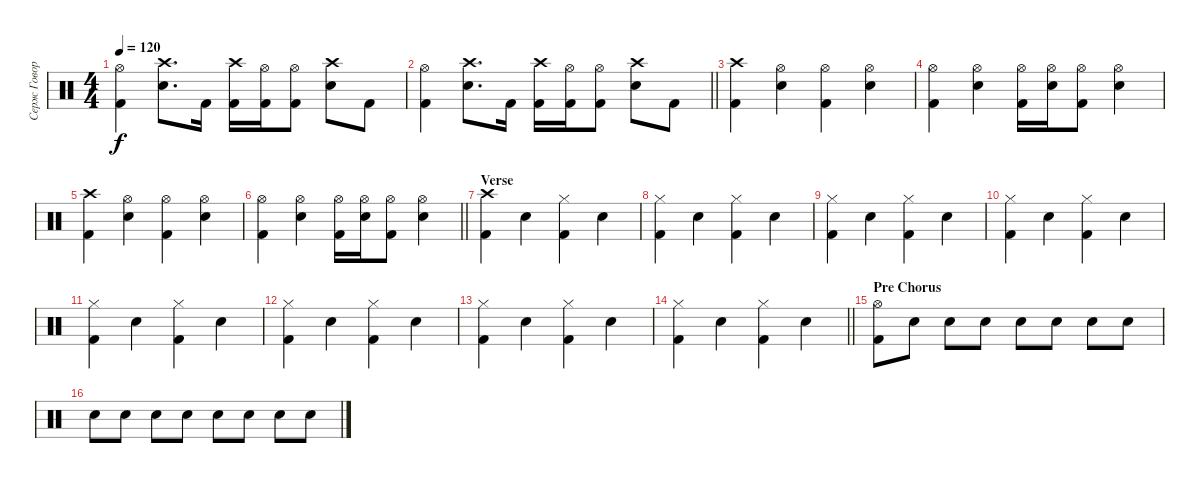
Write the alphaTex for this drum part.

\track ("Серж Говорун" "Серж Говор") {instrument percussion}
\staff {score}
\articulation defaults
\ts (4 4)
\tempo 120
\clef neutral
\ks c
("Hi-Hat (open)" "Kick (hit) 2").4{dy f} ("Crash high (hit)" "Electric Snare (hit)").8{d} "Kick (hit) 2".16 ("Kick (hit) 2" "Crash high (hit)").16 ("Kick (hit) 2" "Hi-Hat (open)").16 ("Kick (hit) 2" "Hi-Hat (open)").8 ("Electric Snare (hit)" "Crash high (hit)").8 "Kick (hit) 2".8 |
\barLineRight lightlight
("Hi-Hat (open)" "Kick (hit) 2").4 ("Crash high (hit)" "Electric Snare (hit)").8{d} "Kick (hit) 2".16 ("Kick (hit) 2" "Crash high (hit)").16 ("Kick (hit) 2" "Hi-Hat (open)").16 ("Kick (hit) 2" "Hi-Hat (open)").8 ("Electric Snare (hit)" "Crash high (hit)").8 "Kick (hit) 2".8 |
("Crash high (hit)" "Kick (hit) 2").4 ("Hi-Hat (open)" "Electric Snare (hit)").4 ("Hi-Hat (open)" "Kick (hit) 2").4 ("Hi-Hat (open)" "Electric Snare (hit)").4 |
("Hi-Hat (open)" "Kick (hit) 2").4 ("Hi-Hat (open)" "Electric Snare (hit)").4 ("Kick (hit) 2" "Hi-Hat (open)").16 ("Hi-Hat (open)" "Electric Snare (hit)").16 ("Kick (hit) 2" "Hi-Hat (open)").8 ("Electric Snare (hit)" "Hi-Hat (open)").4 |
("Crash high (hit)" "Kick (hit) 2").4 ("Hi-Hat (open)" "Electric Snare (hit)").4 ("Hi-Hat (open)" "Kick (hit) 2").4 ("Hi-Hat (open)" "Electric Snare (hit)").4 |
\barLineRight lightlight
("Hi-Hat (open)" "Kick (hit) 2").4 ("Hi-Hat (open)" "Electric Snare (hit)").4 ("Kick (hit) 2" "Hi-Hat (open)").16 ("Hi-Hat (open)" "Electric Snare (hit)").16 ("Kick (hit) 2" "Hi-Hat (open)").8 ("Electric Snare (hit)" "Hi-Hat (open)").4 |
\section ("" "Verse")
("Crash high (hit)" "Kick (hit) 2").4 "Electric Snare (hit)".4 ("Hi-Hat (closed)" "Kick (hit) 2").4 "Electric Snare (hit)".4 |
("Hi-Hat (closed)" "Kick (hit) 2").4 "Electric Snare (hit)".4 ("Hi-Hat (closed)" "Kick (hit) 2").4 "Electric Snare (hit)".4 |
("Hi-Hat (closed)" "Kick (hit) 2").4 "Electric Snare (hit)".4 ("Hi-Hat (closed)" "Kick (hit) 2").4 "Electric Snare (hit)".4 |
("Hi-Hat (closed)" "Kick (hit) 2").4 "Electric Snare (hit)".4 ("Hi-Hat (closed)" "Kick (hit) 2").4 "Electric Snare (hit)".4 |
("Hi-Hat (closed)" "Kick (hit) 2").4 "Electric Snare (hit)".4 ("Hi-Hat (closed)" "Kick (hit) 2").4 "Electric Snare (hit)".4 |
("Hi-Hat (closed)" "Kick (hit) 2").4 "Electric Snare (hit)".4 ("Hi-Hat (closed)" "Kick (hit) 2").4 "Electric Snare (hit)".4 |
("Hi-Hat (closed)" "Kick (hit) 2").4 "Electric Snare (hit)".4 ("Hi-Hat (closed)" "Kick (hit) 2").4 "Electric Snare (hit)".4 |
\barLineRight lightlight
("Hi-Hat (closed)" "Kick (hit) 2").4 "Electric Snare (hit)".4 ("Hi-Hat (closed)" "Kick (hit) 2").4 "Electric Snare (hit)".4 |
\section ("" "Pre Chorus")
("Kick (hit) 2" "Hi-Hat (open)").8 "Electric Snare (hit)".8{volume 6} "Electric Snare (hit)".8 "Electric Snare (hit)".8 "Electric Snare (hit)".8 "Electric Snare (hit)".8 "Electric Snare (hit)".8 "Electric Snare (hit)".8{volume 13} |
"Electric Snare (hit)".8 "Electric Snare (hit)".8 "Electric Snare (hit)".8 "Electric Snare (hit)".8 "Electric Snare (hit)".8 "Electric Snare (hit)".8 "Electric Snare (hit)".8 "Electric Snare (hit)".8
